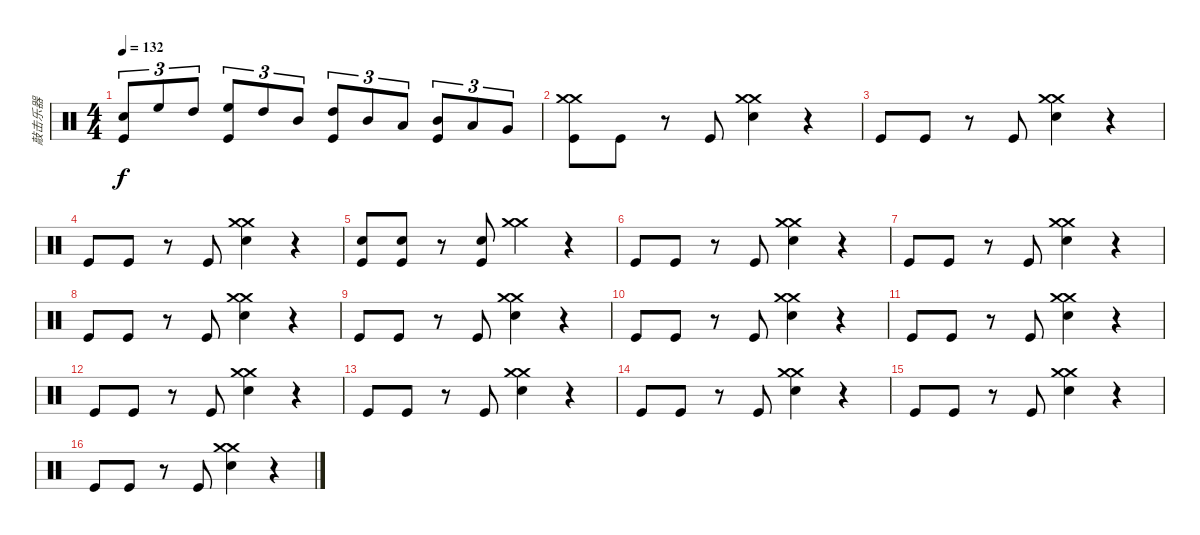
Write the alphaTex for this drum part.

\track ("敲击乐器" "敲击乐器") {instrument percussion}
\staff {score}
\articulation defaults
\ts (4 4)
\tempo 132
\clef neutral
\ks c
("Snare (hit) 2" "Kick (hit)").8{tu (3 2) dy f} "High Floor Tom (hit)".8{tu (3 2)} "High Tom (hit)".8{tu (3 2)} ("High Floor Tom (hit)" "Kick (hit)").8{tu (3 2)} "High Tom (hit)".8{tu (3 2)} "Mid Tom (hit)".8{tu (3 2)} ("High Tom (hit)" "Kick (hit)").8{tu (3 2)} "Mid Tom (hit)".8{tu (3 2)} "Low Tom (hit)".8{tu (3 2)} ("Mid Tom (hit)" "Kick (hit)").8{tu (3 2)} "Low Tom (hit)".8{tu (3 2)} "Very Low Tom (hit)".8{tu (3 2)} |
("Crash medium (hit)" "Crash medium (hit)" "Kick (hit)").8 "Kick (hit)".8 r.8 "Kick (hit)".8 ("Crash medium (hit)" "Crash medium (hit)" "Snare (hit) 2").4 r.4 |
"Kick (hit)".8 "Kick (hit)".8 r.8 "Kick (hit)".8 ("Crash medium (hit)" "Crash medium (hit)" "Snare (hit) 2").4 r.4 |
"Kick (hit)".8 "Kick (hit)".8 r.8 "Kick (hit)".8 ("Crash medium (hit)" "Crash medium (hit)" "Snare (hit) 2").4 r.4 |
("Snare (hit) 2" "Kick (hit)").8 ("Snare (hit) 2" "Kick (hit)").8 r.8 ("Snare (hit) 2" "Kick (hit)").8 ("Crash medium (hit)" "Crash medium (hit)").4 r.4 |
"Kick (hit)".8 "Kick (hit)".8 r.8 "Kick (hit)".8 ("Crash medium (hit)" "Crash medium (hit)" "Snare (hit) 2").4 r.4 |
"Kick (hit)".8 "Kick (hit)".8 r.8 "Kick (hit)".8 ("Crash medium (hit)" "Crash medium (hit)" "Snare (hit) 2").4 r.4 |
"Kick (hit)".8 "Kick (hit)".8 r.8 "Kick (hit)".8 ("Crash medium (hit)" "Crash medium (hit)" "Snare (hit) 2").4 r.4 |
"Kick (hit)".8 "Kick (hit)".8 r.8 "Kick (hit)".8 ("Crash medium (hit)" "Crash medium (hit)" "Snare (hit) 2").4 r.4 |
"Kick (hit)".8 "Kick (hit)".8 r.8 "Kick (hit)".8 ("Crash medium (hit)" "Crash medium (hit)" "Snare (hit) 2").4 r.4 |
"Kick (hit)".8 "Kick (hit)".8 r.8 "Kick (hit)".8 ("Crash medium (hit)" "Crash medium (hit)" "Snare (hit) 2").4 r.4 |
"Kick (hit)".8 "Kick (hit)".8 r.8 "Kick (hit)".8 ("Crash medium (hit)" "Crash medium (hit)" "Snare (hit) 2").4 r.4 |
"Kick (hit)".8 "Kick (hit)".8 r.8 "Kick (hit)".8 ("Crash medium (hit)" "Crash medium (hit)" "Snare (hit) 2").4 r.4 |
"Kick (hit)".8 "Kick (hit)".8 r.8 "Kick (hit)".8 ("Crash medium (hit)" "Crash medium (hit)" "Snare (hit) 2").4 r.4 |
"Kick (hit)".8 "Kick (hit)".8 r.8 "Kick (hit)".8 ("Crash medium (hit)" "Crash medium (hit)" "Snare (hit) 2").4 r.4 |
"Kick (hit)".8 "Kick (hit)".8 r.8 "Kick (hit)".8 ("Crash medium (hit)" "Crash medium (hit)" "Snare (hit) 2").4 r.4
